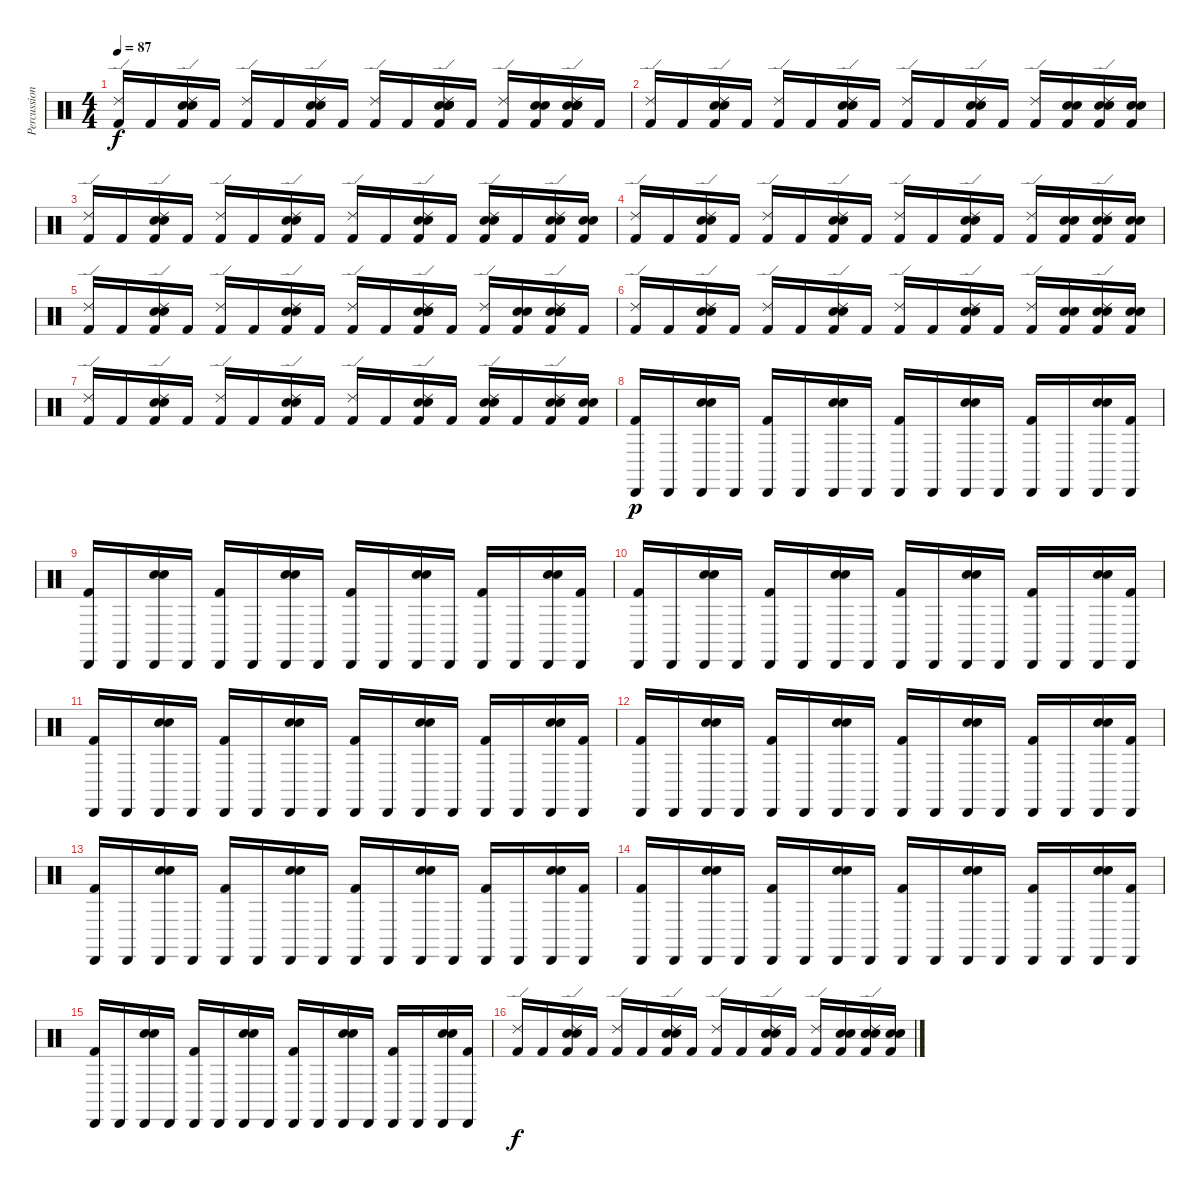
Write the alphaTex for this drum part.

\track ("Percussion" "Percussion") {instrument percussion}
\staff {score}
\articulation defaults
\ts (4 4)
\tempo 87
\clef neutral
\ks c
("Ride (edge) 2" "Kick (hit) 2").16{dy f} "Kick (hit) 2".16 ("Ride (edge) 2" "Hand Clap (hit)" "Electric Snare (hit)" "Kick (hit) 2").16 "Kick (hit) 2".16 ("Ride (edge) 2" "Kick (hit) 2").16 "Kick (hit) 2".16 ("Ride (edge) 2" "Hand Clap (hit)" "Electric Snare (hit)" "Kick (hit) 2").16 "Kick (hit) 2".16 ("Ride (edge) 2" "Kick (hit) 2").16 "Kick (hit) 2".16 ("Hand Clap (hit)" "Ride (edge) 2" "Hand Clap (hit)" "Hand Clap (hit)" "Electric Snare (hit)" "Kick (hit) 2").16 "Kick (hit) 2".16 ("Ride (edge) 2" "Kick (hit) 2").16 ("Hand Clap (hit)" "Hand Clap (hit)" "Kick (hit) 2").16 ("Hand Clap (hit)" "Ride (edge) 2" "Hand Clap (hit)" "Hand Clap (hit)" "Electric Snare (hit)" "Kick (hit) 2").16 "Kick (hit) 2".16 |
("Ride (edge) 2" "Kick (hit) 2").16 "Kick (hit) 2".16 ("Ride (edge) 2" "Hand Clap (hit)" "Electric Snare (hit)" "Kick (hit) 2").16 "Kick (hit) 2".16 ("Ride (edge) 2" "Kick (hit) 2").16 "Kick (hit) 2".16 ("Ride (edge) 2" "Hand Clap (hit)" "Electric Snare (hit)" "Kick (hit) 2").16 "Kick (hit) 2".16 ("Ride (edge) 2" "Kick (hit) 2").16 "Kick (hit) 2".16 ("Ride (edge) 2" "Hand Clap (hit)" "Electric Snare (hit)" "Kick (hit) 2").16 "Kick (hit) 2".16 ("Ride (edge) 2" "Kick (hit) 2").16 ("Hand Clap (hit)" "Hand Clap (hit)" "Kick (hit) 2").16 ("Ride (edge) 2" "Hand Clap (hit)" "Electric Snare (hit)" "Kick (hit) 2").16 ("Hand Clap (hit)" "Hand Clap (hit)" "Kick (hit) 2").16 |
("Ride (edge) 2" "Kick (hit) 2").16 "Kick (hit) 2".16 ("Ride (edge) 2" "Hand Clap (hit)" "Electric Snare (hit)" "Kick (hit) 2").16 "Kick (hit) 2".16 ("Ride (edge) 2" "Kick (hit) 2").16 "Kick (hit) 2".16 ("Ride (edge) 2" "Hand Clap (hit)" "Electric Snare (hit)" "Kick (hit) 2").16 "Kick (hit) 2".16 ("Ride (edge) 2" "Kick (hit) 2").16 "Kick (hit) 2".16 ("Ride (edge) 2" "Hand Clap (hit)" "Electric Snare (hit)" "Kick (hit) 2").16 "Kick (hit) 2".16 ("Hand Clap (hit)" "Ride (edge) 2" "Hand Clap (hit)" "Kick (hit) 2").16 "Kick (hit) 2".16 ("Ride (edge) 2" "Hand Clap (hit)" "Electric Snare (hit)" "Kick (hit) 2").16 ("Hand Clap (hit)" "Hand Clap (hit)" "Kick (hit) 2").16 |
("Ride (edge) 2" "Kick (hit) 2").16 "Kick (hit) 2".16 ("Ride (edge) 2" "Hand Clap (hit)" "Electric Snare (hit)" "Kick (hit) 2").16 "Kick (hit) 2".16 ("Ride (edge) 2" "Kick (hit) 2").16 "Kick (hit) 2".16 ("Ride (edge) 2" "Hand Clap (hit)" "Electric Snare (hit)" "Kick (hit) 2").16 "Kick (hit) 2".16 ("Ride (edge) 2" "Kick (hit) 2").16 "Kick (hit) 2".16 ("Ride (edge) 2" "Hand Clap (hit)" "Electric Snare (hit)" "Kick (hit) 2").16 "Kick (hit) 2".16 ("Ride (edge) 2" "Kick (hit) 2").16 ("Hand Clap (hit)" "Hand Clap (hit)" "Kick (hit) 2").16 ("Ride (edge) 2" "Hand Clap (hit)" "Electric Snare (hit)" "Kick (hit) 2").16 ("Hand Clap (hit)" "Hand Clap (hit)" "Kick (hit) 2").16 |
("Ride (edge) 2" "Kick (hit) 2").16 "Kick (hit) 2".16 ("Ride (edge) 2" "Hand Clap (hit)" "Electric Snare (hit)" "Kick (hit) 2").16 "Kick (hit) 2".16 ("Ride (edge) 2" "Kick (hit) 2").16 "Kick (hit) 2".16 ("Ride (edge) 2" "Hand Clap (hit)" "Electric Snare (hit)" "Kick (hit) 2").16 "Kick (hit) 2".16 ("Ride (edge) 2" "Kick (hit) 2").16 "Kick (hit) 2".16 ("Hand Clap (hit)" "Ride (edge) 2" "Hand Clap (hit)" "Hand Clap (hit)" "Electric Snare (hit)" "Kick (hit) 2").16 "Kick (hit) 2".16 ("Ride (edge) 2" "Kick (hit) 2").16 ("Hand Clap (hit)" "Hand Clap (hit)" "Kick (hit) 2").16 ("Hand Clap (hit)" "Ride (edge) 2" "Hand Clap (hit)" "Hand Clap (hit)" "Electric Snare (hit)" "Kick (hit) 2").16 "Kick (hit) 2".16 |
("Ride (edge) 2" "Kick (hit) 2").16 "Kick (hit) 2".16 ("Ride (edge) 2" "Hand Clap (hit)" "Electric Snare (hit)" "Kick (hit) 2").16 "Kick (hit) 2".16 ("Ride (edge) 2" "Kick (hit) 2").16 "Kick (hit) 2".16 ("Ride (edge) 2" "Hand Clap (hit)" "Electric Snare (hit)" "Kick (hit) 2").16 "Kick (hit) 2".16 ("Ride (edge) 2" "Kick (hit) 2").16 "Kick (hit) 2".16 ("Ride (edge) 2" "Hand Clap (hit)" "Electric Snare (hit)" "Kick (hit) 2").16 "Kick (hit) 2".16 ("Ride (edge) 2" "Kick (hit) 2").16 ("Hand Clap (hit)" "Hand Clap (hit)" "Kick (hit) 2").16 ("Ride (edge) 2" "Hand Clap (hit)" "Electric Snare (hit)" "Kick (hit) 2").16 ("Hand Clap (hit)" "Hand Clap (hit)" "Kick (hit) 2").16 |
("Ride (edge) 2" "Kick (hit) 2").16 "Kick (hit) 2".16 ("Ride (edge) 2" "Hand Clap (hit)" "Electric Snare (hit)" "Kick (hit) 2").16 "Kick (hit) 2".16 ("Ride (edge) 2" "Kick (hit) 2").16 "Kick (hit) 2".16 ("Ride (edge) 2" "Hand Clap (hit)" "Electric Snare (hit)" "Kick (hit) 2").16 "Kick (hit) 2".16 ("Ride (edge) 2" "Kick (hit) 2").16 "Kick (hit) 2".16 ("Ride (edge) 2" "Hand Clap (hit)" "Electric Snare (hit)" "Kick (hit) 2").16 "Kick (hit) 2".16 ("Hand Clap (hit)" "Ride (edge) 2" "Hand Clap (hit)" "Kick (hit) 2").16 "Kick (hit) 2".16 ("Ride (edge) 2" "Hand Clap (hit)" "Electric Snare (hit)" "Kick (hit) 2").16 ("Hand Clap (hit)" "Hand Clap (hit)" "Kick (hit) 2").16 |
("Cabasa (hit)" "Kick (hit) 2").16{dy p} "Cabasa (hit)".16 ("Cabasa (hit)" "Hand Clap (hit)" "Electric Snare (hit)").16 "Cabasa (hit)".16 ("Cabasa (hit)" "Kick (hit) 2").16 "Cabasa (hit)".16 ("Cabasa (hit)" "Hand Clap (hit)" "Electric Snare (hit)").16 "Cabasa (hit)".16 ("Cabasa (hit)" "Kick (hit) 2").16 "Cabasa (hit)".16 ("Cabasa (hit)" "Hand Clap (hit)" "Electric Snare (hit)").16 "Cabasa (hit)".16 ("Cabasa (hit)" "Kick (hit) 2").16 "Cabasa (hit)".16 ("Cabasa (hit)" "Hand Clap (hit)" "Electric Snare (hit)").16 ("Cabasa (hit)" "Kick (hit) 2").16 |
("Cabasa (hit)" "Kick (hit) 2").16 "Cabasa (hit)".16 ("Cabasa (hit)" "Hand Clap (hit)" "Electric Snare (hit)").16 "Cabasa (hit)".16 ("Cabasa (hit)" "Kick (hit) 2").16 "Cabasa (hit)".16 ("Cabasa (hit)" "Hand Clap (hit)" "Electric Snare (hit)").16 "Cabasa (hit)".16 ("Cabasa (hit)" "Kick (hit) 2").16 "Cabasa (hit)".16 ("Cabasa (hit)" "Hand Clap (hit)" "Electric Snare (hit)").16 "Cabasa (hit)".16 ("Cabasa (hit)" "Kick (hit) 2").16 "Cabasa (hit)".16 ("Cabasa (hit)" "Hand Clap (hit)" "Electric Snare (hit)").16 ("Cabasa (hit)" "Kick (hit) 2").16 |
("Cabasa (hit)" "Kick (hit) 2").16 "Cabasa (hit)".16 ("Cabasa (hit)" "Hand Clap (hit)" "Electric Snare (hit)").16 "Cabasa (hit)".16 ("Cabasa (hit)" "Kick (hit) 2").16 "Cabasa (hit)".16 ("Cabasa (hit)" "Hand Clap (hit)" "Electric Snare (hit)").16 "Cabasa (hit)".16 ("Cabasa (hit)" "Kick (hit) 2").16 "Cabasa (hit)".16 ("Cabasa (hit)" "Hand Clap (hit)" "Electric Snare (hit)").16 "Cabasa (hit)".16 ("Cabasa (hit)" "Kick (hit) 2").16 "Cabasa (hit)".16 ("Cabasa (hit)" "Hand Clap (hit)" "Electric Snare (hit)").16 ("Cabasa (hit)" "Kick (hit) 2").16 |
("Cabasa (hit)" "Kick (hit) 2").16 "Cabasa (hit)".16 ("Cabasa (hit)" "Hand Clap (hit)" "Electric Snare (hit)").16 "Cabasa (hit)".16 ("Cabasa (hit)" "Kick (hit) 2").16 "Cabasa (hit)".16 ("Cabasa (hit)" "Hand Clap (hit)" "Electric Snare (hit)").16 "Cabasa (hit)".16 ("Cabasa (hit)" "Kick (hit) 2").16 "Cabasa (hit)".16 ("Cabasa (hit)" "Hand Clap (hit)" "Electric Snare (hit)").16 "Cabasa (hit)".16 ("Cabasa (hit)" "Kick (hit) 2").16 "Cabasa (hit)".16 ("Cabasa (hit)" "Hand Clap (hit)" "Electric Snare (hit)").16 ("Cabasa (hit)" "Kick (hit) 2").16 |
("Cabasa (hit)" "Kick (hit) 2").16 "Cabasa (hit)".16 ("Cabasa (hit)" "Hand Clap (hit)" "Electric Snare (hit)").16 "Cabasa (hit)".16 ("Cabasa (hit)" "Kick (hit) 2").16 "Cabasa (hit)".16 ("Cabasa (hit)" "Hand Clap (hit)" "Electric Snare (hit)").16 "Cabasa (hit)".16 ("Cabasa (hit)" "Kick (hit) 2").16 "Cabasa (hit)".16 ("Cabasa (hit)" "Hand Clap (hit)" "Electric Snare (hit)").16 "Cabasa (hit)".16 ("Cabasa (hit)" "Kick (hit) 2").16 "Cabasa (hit)".16 ("Cabasa (hit)" "Hand Clap (hit)" "Electric Snare (hit)").16 ("Cabasa (hit)" "Kick (hit) 2").16 |
("Cabasa (hit)" "Kick (hit) 2").16 "Cabasa (hit)".16 ("Cabasa (hit)" "Hand Clap (hit)" "Electric Snare (hit)").16 "Cabasa (hit)".16 ("Cabasa (hit)" "Kick (hit) 2").16 "Cabasa (hit)".16 ("Cabasa (hit)" "Hand Clap (hit)" "Electric Snare (hit)").16 "Cabasa (hit)".16 ("Cabasa (hit)" "Kick (hit) 2").16 "Cabasa (hit)".16 ("Cabasa (hit)" "Hand Clap (hit)" "Electric Snare (hit)").16 "Cabasa (hit)".16 ("Cabasa (hit)" "Kick (hit) 2").16 "Cabasa (hit)".16 ("Cabasa (hit)" "Hand Clap (hit)" "Electric Snare (hit)").16 ("Cabasa (hit)" "Kick (hit) 2").16 |
("Cabasa (hit)" "Kick (hit) 2").16 "Cabasa (hit)".16 ("Cabasa (hit)" "Hand Clap (hit)" "Electric Snare (hit)").16 "Cabasa (hit)".16 ("Cabasa (hit)" "Kick (hit) 2").16 "Cabasa (hit)".16 ("Cabasa (hit)" "Hand Clap (hit)" "Electric Snare (hit)").16 "Cabasa (hit)".16 ("Cabasa (hit)" "Kick (hit) 2").16 "Cabasa (hit)".16 ("Cabasa (hit)" "Hand Clap (hit)" "Electric Snare (hit)").16 "Cabasa (hit)".16 ("Cabasa (hit)" "Kick (hit) 2").16 "Cabasa (hit)".16 ("Cabasa (hit)" "Hand Clap (hit)" "Electric Snare (hit)").16 ("Cabasa (hit)" "Kick (hit) 2").16 |
("Cabasa (hit)" "Kick (hit) 2").16 "Cabasa (hit)".16 ("Cabasa (hit)" "Hand Clap (hit)" "Electric Snare (hit)").16 "Cabasa (hit)".16 ("Cabasa (hit)" "Kick (hit) 2").16 "Cabasa (hit)".16 ("Cabasa (hit)" "Hand Clap (hit)" "Electric Snare (hit)").16 "Cabasa (hit)".16 ("Cabasa (hit)" "Kick (hit) 2").16 "Cabasa (hit)".16 ("Cabasa (hit)" "Hand Clap (hit)" "Electric Snare (hit)").16 "Cabasa (hit)".16 ("Cabasa (hit)" "Kick (hit) 2").16 "Cabasa (hit)".16 ("Cabasa (hit)" "Hand Clap (hit)" "Electric Snare (hit)").16 ("Cabasa (hit)" "Kick (hit) 2").16 |
("Ride (edge) 2" "Kick (hit) 2").16{dy f} "Kick (hit) 2".16 ("Ride (edge) 2" "Hand Clap (hit)" "Electric Snare (hit)" "Kick (hit) 2").16 "Kick (hit) 2".16 ("Ride (edge) 2" "Kick (hit) 2").16 "Kick (hit) 2".16 ("Ride (edge) 2" "Hand Clap (hit)" "Electric Snare (hit)" "Kick (hit) 2").16 "Kick (hit) 2".16 ("Ride (edge) 2" "Kick (hit) 2").16 "Kick (hit) 2".16 ("Ride (edge) 2" "Hand Clap (hit)" "Electric Snare (hit)" "Kick (hit) 2").16 "Kick (hit) 2".16 ("Ride (edge) 2" "Kick (hit) 2").16 ("Hand Clap (hit)" "Hand Clap (hit)" "Kick (hit) 2").16 ("Ride (edge) 2" "Hand Clap (hit)" "Electric Snare (hit)" "Kick (hit) 2").16 ("Hand Clap (hit)" "Hand Clap (hit)" "Kick (hit) 2").16
